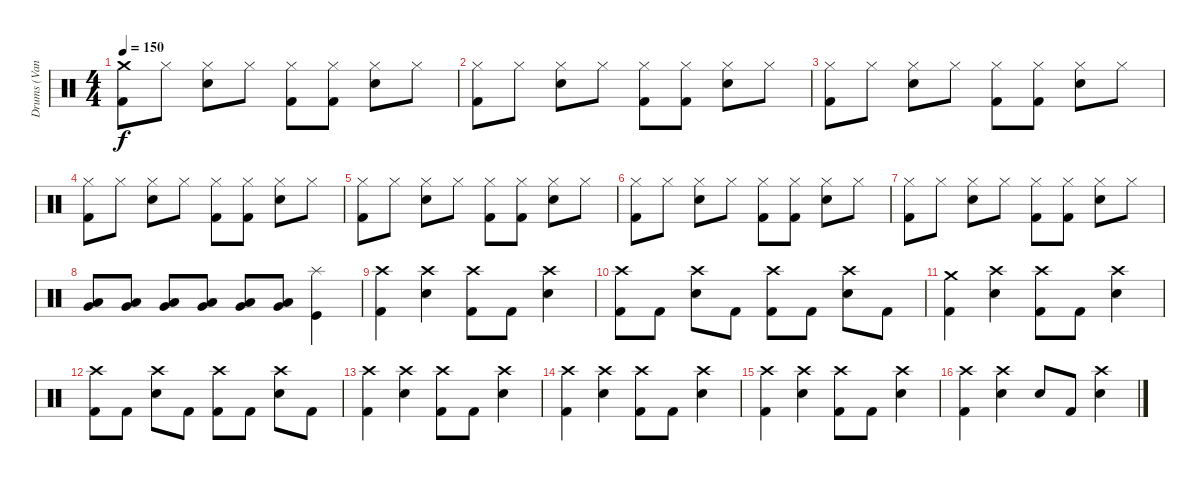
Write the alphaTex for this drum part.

\track ("Drums (Vandel)" "Drums (Van") {instrument percussion}
\staff {score}
\articulation defaults
\ts (4 4)
\tempo 150
\clef neutral
\ks c
("Crash medium (hit)" "Kick (hit) 2").8{dy f} "Hi-Hat (closed)".8 ("Hi-Hat (closed)" "Snare (hit) 2").8 "Hi-Hat (closed)".8 ("Hi-Hat (closed)" "Kick (hit) 2").8 ("Hi-Hat (closed)" "Kick (hit) 2").8 ("Hi-Hat (closed)" "Snare (hit) 2").8 "Hi-Hat (closed)".8 |
("Hi-Hat (closed)" "Kick (hit) 2").8 "Hi-Hat (closed)".8 ("Hi-Hat (closed)" "Snare (hit) 2").8 "Hi-Hat (closed)".8 ("Hi-Hat (closed)" "Kick (hit) 2").8 ("Hi-Hat (closed)" "Kick (hit) 2").8 ("Hi-Hat (closed)" "Snare (hit) 2").8 "Hi-Hat (closed)".8 |
("Hi-Hat (closed)" "Kick (hit) 2").8 "Hi-Hat (closed)".8 ("Hi-Hat (closed)" "Snare (hit) 2").8 "Hi-Hat (closed)".8 ("Hi-Hat (closed)" "Kick (hit) 2").8 ("Hi-Hat (closed)" "Kick (hit) 2").8 ("Hi-Hat (closed)" "Snare (hit) 2").8 "Hi-Hat (closed)".8 |
("Hi-Hat (closed)" "Kick (hit) 2").8 "Hi-Hat (closed)".8 ("Hi-Hat (closed)" "Snare (hit) 2").8 "Hi-Hat (closed)".8 ("Hi-Hat (closed)" "Kick (hit) 2").8 ("Hi-Hat (closed)" "Kick (hit) 2").8 ("Hi-Hat (closed)" "Snare (hit) 2").8 "Hi-Hat (closed)".8 |
("Hi-Hat (closed)" "Kick (hit) 2").8 "Hi-Hat (closed)".8 ("Hi-Hat (closed)" "Snare (hit) 2").8 "Hi-Hat (closed)".8 ("Hi-Hat (closed)" "Kick (hit) 2").8 ("Hi-Hat (closed)" "Kick (hit) 2").8 ("Hi-Hat (closed)" "Snare (hit) 2").8 "Hi-Hat (closed)".8 |
("Hi-Hat (closed)" "Kick (hit) 2").8 "Hi-Hat (closed)".8 ("Hi-Hat (closed)" "Snare (hit) 2").8 "Hi-Hat (closed)".8 ("Hi-Hat (closed)" "Kick (hit) 2").8 ("Hi-Hat (closed)" "Kick (hit) 2").8 ("Hi-Hat (closed)" "Snare (hit) 2").8 "Hi-Hat (closed)".8 |
("Hi-Hat (closed)" "Kick (hit) 2").8 "Hi-Hat (closed)".8 ("Hi-Hat (closed)" "Snare (hit) 2").8 "Hi-Hat (closed)".8 ("Hi-Hat (closed)" "Kick (hit) 2").8 ("Hi-Hat (closed)" "Kick (hit) 2").8 ("Hi-Hat (closed)" "Snare (hit) 2").8 "Hi-Hat (closed)".8 |
("Low Tom (hit)" "Very Low Tom (hit)").8 ("Low Tom (hit)" "Very Low Tom (hit)").8 ("Low Tom (hit)" "Very Low Tom (hit)").8 ("Low Tom (hit)" "Very Low Tom (hit)").8 ("Low Tom (hit)" "Very Low Tom (hit)").8 ("Low Tom (hit)" "Very Low Tom (hit)").8 ("Splash (hit)" "Kick (hit)").4 |
("Crash high (hit)" "Kick (hit) 2").4 ("Crash high (hit)" "Snare (hit) 2").4 ("Crash high (hit)" "Kick (hit) 2").8 "Kick (hit) 2".8 ("Crash high (hit)" "Snare (hit) 2").4 |
("Crash high (hit)" "Kick (hit) 2").8 "Kick (hit) 2".8 ("Crash high (hit)" "Snare (hit) 2").8 "Kick (hit) 2".8 ("Crash high (hit)" "Kick (hit) 2").8 "Kick (hit) 2".8 ("Crash high (hit)" "Snare (hit) 2").8 "Kick (hit) 2".8 |
("Crash medium (hit)" "Kick (hit) 2").4 ("Crash high (hit)" "Snare (hit) 2").4 ("Crash high (hit)" "Kick (hit) 2").8 "Kick (hit) 2".8 ("Crash high (hit)" "Snare (hit) 2").4 |
("Crash high (hit)" "Kick (hit) 2").8 "Kick (hit) 2".8 ("Crash high (hit)" "Snare (hit) 2").8 "Kick (hit) 2".8 ("Crash high (hit)" "Kick (hit) 2").8 "Kick (hit) 2".8 ("Crash high (hit)" "Snare (hit) 2").8 "Kick (hit) 2".8 |
("Crash high (hit)" "Kick (hit) 2").4 ("Crash high (hit)" "Snare (hit) 2").4 ("Crash high (hit)" "Kick (hit) 2").8 "Kick (hit) 2".8 ("Crash high (hit)" "Snare (hit) 2").4 |
("Crash high (hit)" "Kick (hit) 2").4 ("Crash high (hit)" "Snare (hit) 2").4 ("Crash high (hit)" "Kick (hit) 2").8 "Kick (hit) 2".8 ("Crash high (hit)" "Snare (hit) 2").4 |
("Crash high (hit)" "Kick (hit) 2").4 ("Crash high (hit)" "Snare (hit) 2").4 ("Crash high (hit)" "Kick (hit) 2").8 "Kick (hit) 2".8 ("Crash high (hit)" "Snare (hit) 2").4 |
("Crash high (hit)" "Kick (hit) 2").4 ("Crash high (hit)" "Snare (hit) 2").4 "Snare (hit) 2".8 "Kick (hit) 2".8 ("Crash high (hit)" "Snare (hit) 2").4
